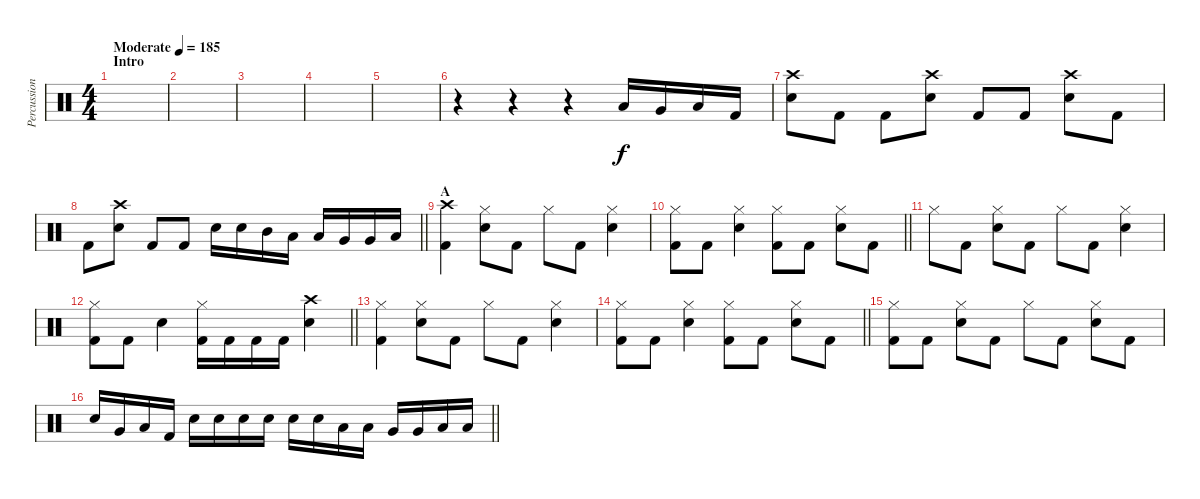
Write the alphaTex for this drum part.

\track ("Percussion" "Percussion") {instrument percussion}
\staff {score}
\articulation defaults
\ts (4 4)
\section ("" "Intro")
\tempo (185 "Moderate")
\clef neutral
\ks c
|
|
|
|
|
r.4 r.4 r.4 "Low Tom (hit)".16 "Very Low Tom (hit)".16 "Low Floor Tom (hit)".16 "Kick (hit) 2".16 |
("Crash high (hit)" "Snare (hit) 2").8 "Kick (hit) 2".8 "Kick (hit) 2".8 ("Crash high (hit)" "Snare (hit) 2").8 "Kick (hit) 2".8 "Kick (hit) 2".8 ("Crash high (hit)" "Snare (hit) 2").8 "Kick (hit) 2".8 |
\barLineRight lightlight "Kick (hit) 2".8
("Crash high (hit)" "Snare (hit) 2").8 "Kick (hit) 2".8 "Kick (hit) 2".8 "Snare (hit) 2".16 "Snare (hit) 2".16 "Mid Tom (hit)".16 "Low Tom (hit)".16 "Low Tom (hit)".16 "Very Low Tom (hit)".16 "Very Low Tom (hit)".16 "Low Floor Tom (hit)".16 |
\section ("" "A")
("Crash high (hit)" "Kick (hit) 2").4 ("Hi-Hat (closed)" "Snare (hit) 2").8 "Kick (hit) 2".8 "Hi-Hat (closed)".8 "Kick (hit) 2".8 ("Hi-Hat (closed)" "Snare (hit) 2").4 |
\barLineRight lightlight
("Hi-Hat (closed)" "Kick (hit) 2").8 "Kick (hit) 2".8 ("Hi-Hat (closed)" "Snare (hit) 2").4 ("Hi-Hat (closed)" "Kick (hit) 2").8 "Kick (hit) 2".8 ("Hi-Hat (closed)" "Snare (hit) 2").8 "Kick (hit) 2".8 |
"Hi-Hat (closed)".8 "Kick (hit) 2".8 ("Hi-Hat (closed)" "Snare (hit) 2").8 "Kick (hit) 2".8 "Hi-Hat (closed)".8 "Kick (hit) 2".8 ("Hi-Hat (closed)" "Snare (hit) 2").4 |
\barLineRight lightlight
("Hi-Hat (closed)" "Kick (hit) 2").8 "Kick (hit) 2".8 "Snare (hit) 2".4 ("Hi-Hat (closed)" "Kick (hit) 2").16 "Kick (hit) 2".16 "Kick (hit) 2".16 "Kick (hit) 2".16 ("Crash high (hit)" "Snare (hit) 2").4 |
("Hi-Hat (closed)" "Kick (hit) 2").4 ("Hi-Hat (closed)" "Snare (hit) 2").8 "Kick (hit) 2".8 "Hi-Hat (closed)".8 "Kick (hit) 2".8 ("Hi-Hat (closed)" "Snare (hit) 2").4 |
\barLineRight lightlight
("Hi-Hat (closed)" "Kick (hit) 2").8 "Kick (hit) 2".8 ("Hi-Hat (closed)" "Snare (hit) 2").4 ("Hi-Hat (closed)" "Kick (hit) 2").8 "Kick (hit) 2".8 ("Hi-Hat (closed)" "Snare (hit) 2").8 "Kick (hit) 2".8 |
("Hi-Hat (closed)" "Kick (hit) 2").8 "Kick (hit) 2".8 ("Hi-Hat (closed)" "Snare (hit) 2").8 "Kick (hit) 2".8 "Hi-Hat (closed)".8 "Kick (hit) 2".8 ("Hi-Hat (closed)" "Snare (hit) 2").8 "Kick (hit) 2".8 |
\barLineRight lightlight "Snare (hit) 2".16 "Very Low Tom (hit)".16 "Low Floor Tom (hit)".16 "Kick (hit) 2".16 "Snare (hit) 2".16 "Snare (hit) 2".16 "Snare (hit) 2".16 "Snare (hit) 2".16 "Snare (hit) 2".16 "Snare (hit) 2".16 "Low Tom (hit)".16 "Low Tom (hit)".16 "Very Low Tom (hit)".16 "Very Low Tom (hit)".16 "Low Floor Tom (hit)".16 "Low Floor Tom (hit)".16
